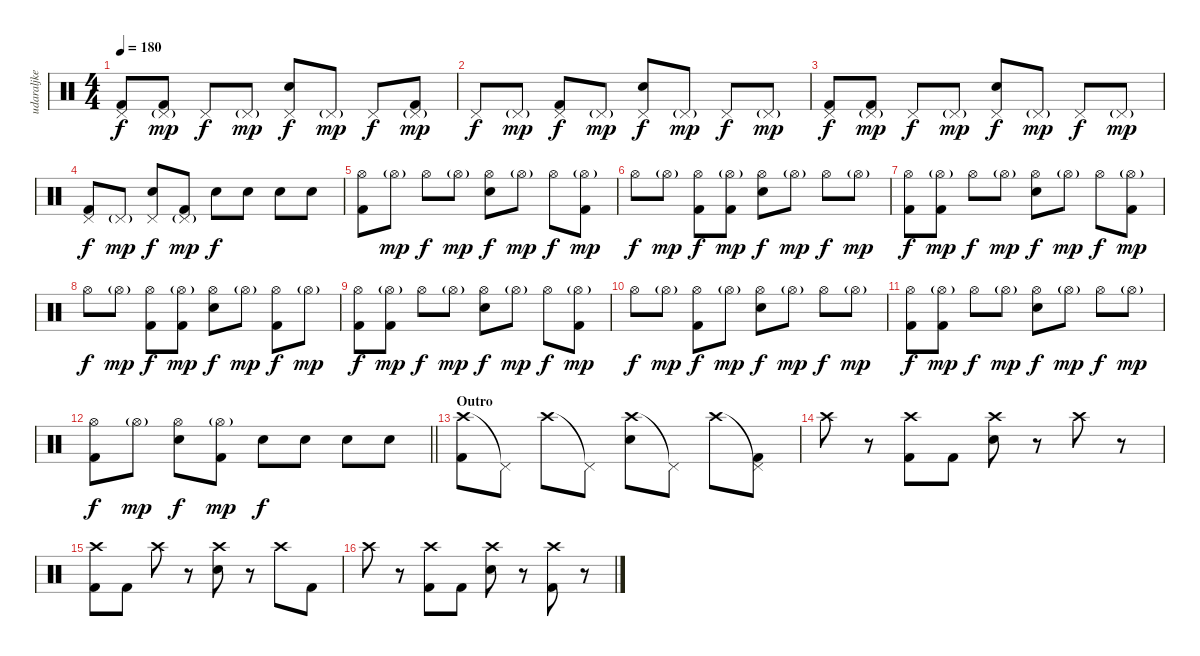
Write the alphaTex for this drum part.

\track ("udaraljke" "udaraljke") {instrument percussion}
\staff {score}
\articulation defaults
\ts (4 4)
\tempo 180
\clef neutral
\ks c
("Pedal Hi-Hat (hit)" "Kick (hit) 2").8{dy f} ("Pedal Hi-Hat (hit)"{g} "Kick (hit) 2").8{dy mp} "Pedal Hi-Hat (hit)".8{dy f} "Pedal Hi-Hat (hit)"{g}.8{dy mp} ("Pedal Hi-Hat (hit)" "Snare (hit) 2").8{dy f} "Pedal Hi-Hat (hit)"{g}.8{dy mp} "Pedal Hi-Hat (hit)".8{dy f} ("Pedal Hi-Hat (hit)"{g} "Kick (hit) 2").8{dy mp} |
"Pedal Hi-Hat (hit)".8{dy f} "Pedal Hi-Hat (hit)"{g}.8{dy mp} ("Pedal Hi-Hat (hit)" "Kick (hit) 2").8{dy f} "Pedal Hi-Hat (hit)"{g}.8{dy mp} ("Pedal Hi-Hat (hit)" "Snare (hit) 2").8{dy f} "Pedal Hi-Hat (hit)"{g}.8{dy mp} "Pedal Hi-Hat (hit)".8{dy f} "Pedal Hi-Hat (hit)"{g}.8{dy mp} |
("Pedal Hi-Hat (hit)" "Kick (hit) 2").8{dy f} ("Pedal Hi-Hat (hit)"{g} "Kick (hit) 2").8{dy mp} "Pedal Hi-Hat (hit)".8{dy f} "Pedal Hi-Hat (hit)"{g}.8{dy mp} ("Pedal Hi-Hat (hit)" "Snare (hit) 2").8{dy f} "Pedal Hi-Hat (hit)"{g}.8{dy mp} "Pedal Hi-Hat (hit)".8{dy f} "Pedal Hi-Hat (hit)"{g}.8{dy mp} |
("Pedal Hi-Hat (hit)" "Kick (hit) 2").8{dy f} "Pedal Hi-Hat (hit)"{g}.8{dy mp} ("Pedal Hi-Hat (hit)" "Snare (hit) 2").8{dy f} ("Pedal Hi-Hat (hit)"{g} "Kick (hit) 2").8{dy mp} "Snare (hit) 2".8{dy f} "Snare (hit) 2".8 "Snare (hit) 2".8 "Snare (hit) 2".8 |
("Hi-Hat (open)" "Kick (hit) 2").8 "Hi-Hat (open)"{g}.8{dy mp} "Hi-Hat (open)".8{dy f} "Hi-Hat (open)"{g}.8{dy mp} ("Hi-Hat (open)" "Snare (hit) 2").8{dy f} "Hi-Hat (open)"{g}.8{dy mp} "Hi-Hat (open)".8{dy f} ("Hi-Hat (open)"{g} "Kick (hit) 2").8{dy mp} |
"Hi-Hat (open)".8{dy f} "Hi-Hat (open)"{g}.8{dy mp} ("Hi-Hat (open)" "Kick (hit) 2").8{dy f} ("Hi-Hat (open)"{g} "Kick (hit) 2").8{dy mp} ("Hi-Hat (open)" "Snare (hit) 2").8{dy f} "Hi-Hat (open)"{g}.8{dy mp} "Hi-Hat (open)".8{dy f} "Hi-Hat (open)"{g}.8{dy mp} |
("Hi-Hat (open)" "Kick (hit) 2").8{dy f} ("Hi-Hat (open)"{g} "Kick (hit) 2").8{dy mp} "Hi-Hat (open)".8{dy f} "Hi-Hat (open)"{g}.8{dy mp} ("Hi-Hat (open)" "Snare (hit) 2").8{dy f} "Hi-Hat (open)"{g}.8{dy mp} "Hi-Hat (open)".8{dy f} ("Hi-Hat (open)"{g} "Kick (hit) 2").8{dy mp} |
"Hi-Hat (open)".8{dy f} "Hi-Hat (open)"{g}.8{dy mp} ("Hi-Hat (open)" "Kick (hit) 2").8{dy f} ("Hi-Hat (open)"{g} "Kick (hit) 2").8{dy mp} ("Hi-Hat (open)" "Snare (hit) 2").8{dy f} "Hi-Hat (open)"{g}.8{dy mp} ("Hi-Hat (open)" "Kick (hit) 2").8{dy f} "Hi-Hat (open)"{g}.8{dy mp} |
("Hi-Hat (open)" "Kick (hit) 2").8{dy f} ("Hi-Hat (open)"{g} "Kick (hit) 2").8{dy mp} "Hi-Hat (open)".8{dy f} "Hi-Hat (open)"{g}.8{dy mp} ("Hi-Hat (open)" "Snare (hit) 2").8{dy f} "Hi-Hat (open)"{g}.8{dy mp} "Hi-Hat (open)".8{dy f} ("Hi-Hat (open)"{g} "Kick (hit) 2").8{dy mp} |
"Hi-Hat (open)".8{dy f} "Hi-Hat (open)"{g}.8{dy mp} ("Hi-Hat (open)" "Kick (hit) 2").8{dy f} "Hi-Hat (open)"{g}.8{dy mp} ("Hi-Hat (open)" "Snare (hit) 2").8{dy f} "Hi-Hat (open)"{g}.8{dy mp} "Hi-Hat (open)".8{dy f} "Hi-Hat (open)"{g}.8{dy mp} |
("Hi-Hat (open)" "Kick (hit) 2").8{dy f} ("Hi-Hat (open)"{g} "Kick (hit) 2").8{dy mp} "Hi-Hat (open)".8{dy f} "Hi-Hat (open)"{g}.8{dy mp} ("Hi-Hat (open)" "Snare (hit) 2").8{dy f} "Hi-Hat (open)"{g}.8{dy mp} "Hi-Hat (open)".8{dy f} "Hi-Hat (open)"{g}.8{dy mp} |
\barLineRight lightlight
("Hi-Hat (open)" "Kick (hit) 2").8{dy f} "Hi-Hat (open)"{g}.8{dy mp} ("Hi-Hat (open)" "Snare (hit) 2").8{dy f} ("Hi-Hat (open)"{g} "Kick (hit) 2").8{dy mp} "Snare (hit) 2".8{dy f} "Snare (hit) 2".8 "Snare (hit) 2".8 "Snare (hit) 2".8 |
\section ("" "Outro")
("Crash high (hit)" "Kick (hit) 2").8 "Pedal Hi-Hat (hit)"{t}.8 "Crash high (hit)".8 "Pedal Hi-Hat (hit)"{t}.8 ("Crash high (hit)" "Snare (hit) 2").8 "Pedal Hi-Hat (hit)"{t}.8 "Crash high (hit)".8 ("Pedal Hi-Hat (hit)"{t} "Kick (hit) 2").8 |
"Crash high (hit)".8 r.8 ("Crash high (hit)" "Kick (hit) 2").8 "Kick (hit) 2".8 ("Crash high (hit)" "Snare (hit) 2").8 r.8 "Crash high (hit)".8 r.8 |
("Crash high (hit)" "Kick (hit) 2").8 "Kick (hit) 2".8 "Crash high (hit)".8 r.8 ("Crash high (hit)" "Snare (hit) 2").8 r.8 "Crash high (hit)".8 "Kick (hit) 2".8 |
"Crash high (hit)".8 r.8 ("Crash high (hit)" "Kick (hit) 2").8 "Kick (hit) 2".8 ("Crash high (hit)" "Snare (hit) 2").8 r.8 ("Crash high (hit)" "Kick (hit) 2").8 r.8
